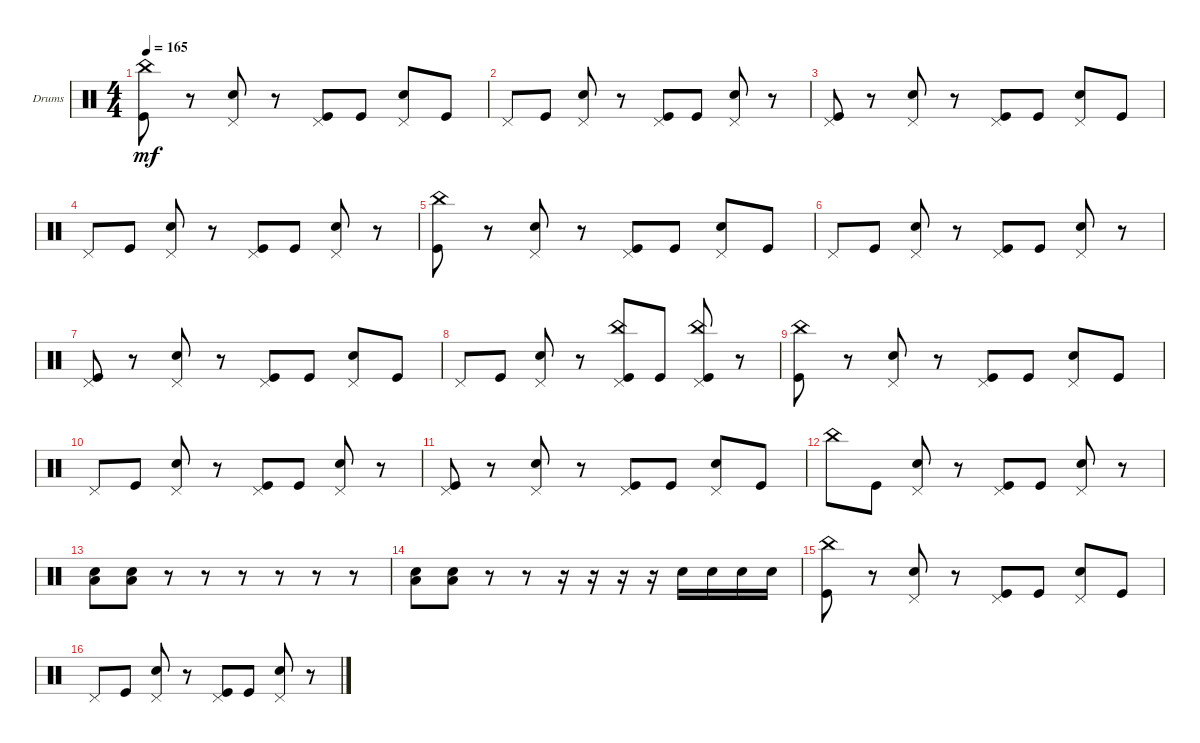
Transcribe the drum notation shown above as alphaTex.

\defaultSystemsLayout 4
\bracketExtendMode groupsimilarinstruments
\firstSystemTrackNameOrientation horizontal
\otherSystemsTrackNameOrientation horizontal
\track ("Drumkit" "Drums") {instrument percussion}
\staff {score}
\articulation defaults
\ts (4 4)
\tempo 165
\clef neutral
\ks c
("Kick (hit)" "China (hit)").8{dy mf} r.8 ("Snare (hit) 2" "Pedal Hi-Hat (hit)").8 r.8 ("Kick (hit)" "Pedal Hi-Hat (hit)").8 "Kick (hit)".8 ("Snare (hit) 2" "Pedal Hi-Hat (hit)").8 "Kick (hit)".8 |
"Pedal Hi-Hat (hit)".8 "Kick (hit)".8 ("Snare (hit) 2" "Pedal Hi-Hat (hit)").8 r.8 ("Kick (hit)" "Pedal Hi-Hat (hit)").8 "Kick (hit)".8 ("Snare (hit) 2" "Pedal Hi-Hat (hit)").8 r.8 |
("Kick (hit)" "Pedal Hi-Hat (hit)").8 r.8 ("Snare (hit) 2" "Pedal Hi-Hat (hit)").8 r.8 ("Kick (hit)" "Pedal Hi-Hat (hit)").8 "Kick (hit)".8 ("Snare (hit) 2" "Pedal Hi-Hat (hit)").8 "Kick (hit)".8 |
"Pedal Hi-Hat (hit)".8 "Kick (hit)".8 ("Snare (hit) 2" "Pedal Hi-Hat (hit)").8 r.8 ("Kick (hit)" "Pedal Hi-Hat (hit)").8 "Kick (hit)".8 ("Snare (hit) 2" "Pedal Hi-Hat (hit)").8 r.8 |
("Kick (hit)" "China (hit)").8 r.8 ("Snare (hit) 2" "Pedal Hi-Hat (hit)").8 r.8 ("Kick (hit)" "Pedal Hi-Hat (hit)").8 "Kick (hit)".8 ("Snare (hit) 2" "Pedal Hi-Hat (hit)").8 "Kick (hit)".8 |
"Pedal Hi-Hat (hit)".8 "Kick (hit)".8 ("Snare (hit) 2" "Pedal Hi-Hat (hit)").8 r.8 ("Kick (hit)" "Pedal Hi-Hat (hit)").8 "Kick (hit)".8 ("Snare (hit) 2" "Pedal Hi-Hat (hit)").8 r.8 |
("Kick (hit)" "Pedal Hi-Hat (hit)").8 r.8 ("Snare (hit) 2" "Pedal Hi-Hat (hit)").8 r.8 ("Kick (hit)" "Pedal Hi-Hat (hit)").8 "Kick (hit)".8 ("Snare (hit) 2" "Pedal Hi-Hat (hit)").8 "Kick (hit)".8 |
"Pedal Hi-Hat (hit)".8 "Kick (hit)".8 ("Snare (hit) 2" "Pedal Hi-Hat (hit)").8 r.8 ("Kick (hit)" "Pedal Hi-Hat (hit)" "China (hit)").8 "Kick (hit)".8 ("Pedal Hi-Hat (hit)" "China (hit)" "Kick (hit)").8 r.8 |
("Kick (hit)" "China (hit)").8 r.8 ("Snare (hit) 2" "Pedal Hi-Hat (hit)").8 r.8 ("Kick (hit)" "Pedal Hi-Hat (hit)").8 "Kick (hit)".8 ("Snare (hit) 2" "Pedal Hi-Hat (hit)").8 "Kick (hit)".8 |
"Pedal Hi-Hat (hit)".8 "Kick (hit)".8 ("Snare (hit) 2" "Pedal Hi-Hat (hit)").8 r.8 ("Kick (hit)" "Pedal Hi-Hat (hit)").8 "Kick (hit)".8 ("Snare (hit) 2" "Pedal Hi-Hat (hit)").8 r.8 |
("Kick (hit)" "Pedal Hi-Hat (hit)").8 r.8 ("Snare (hit) 2" "Pedal Hi-Hat (hit)").8 r.8 ("Kick (hit)" "Pedal Hi-Hat (hit)").8 "Kick (hit)".8 ("Snare (hit) 2" "Pedal Hi-Hat (hit)").8 "Kick (hit)".8 |
"China (hit)".8 "Kick (hit)".8 ("Snare (hit) 2" "Pedal Hi-Hat (hit)").8 r.8 ("Kick (hit)" "Pedal Hi-Hat (hit)").8 "Kick (hit)".8 ("Snare (hit) 2" "Pedal Hi-Hat (hit)").8 r.8 |
("Low Tom (hit)" "Snare (hit) 2").8 ("Snare (hit) 2" "Low Tom (hit)").8 r.8 r.8 r.8 r.8 r.8 r.8 |
("Low Tom (hit)" "Snare (hit) 2").8 ("Snare (hit) 2" "Low Tom (hit)").8 r.8 r.8 r.16 r.16 r.16 r.16 "Snare (hit) 2".16 "Snare (hit) 2".16 "Snare (hit) 2".16 "Snare (hit) 2".16 |
("Kick (hit)" "China (hit)").8 r.8 ("Snare (hit) 2" "Pedal Hi-Hat (hit)").8 r.8 ("Kick (hit)" "Pedal Hi-Hat (hit)").8 "Kick (hit)".8 ("Snare (hit) 2" "Pedal Hi-Hat (hit)").8 "Kick (hit)".8 |
"Pedal Hi-Hat (hit)".8 "Kick (hit)".8 ("Snare (hit) 2" "Pedal Hi-Hat (hit)").8 r.8 ("Kick (hit)" "Pedal Hi-Hat (hit)").8 "Kick (hit)".8 ("Snare (hit) 2" "Pedal Hi-Hat (hit)").8 r.8
